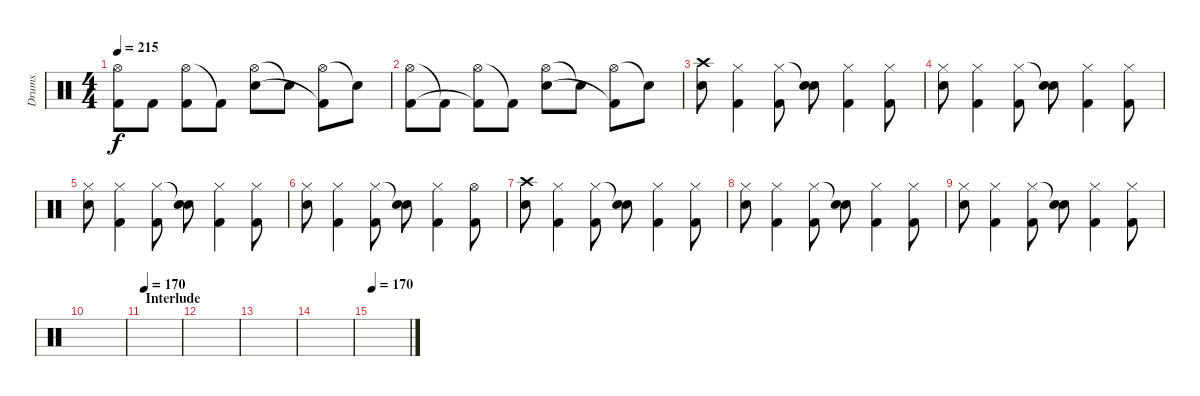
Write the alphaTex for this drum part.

\track ("Drums" "Drums") {instrument percussion}
\staff {score}
\articulation defaults
\ts (4 4)
\tempo 215
\clef neutral
\ks c
("Hi-Hat (open)" "Kick (hit) 2").8{dy f} "Kick (hit) 2".8 ("Hi-Hat (open)" "Kick (hit) 2").8 "Kick (hit) 2"{t}.8 ("Hi-Hat (open)" "Electric Snare (hit)").8 "Snare (hit)"{t}.8 ("Hi-Hat (open)" "Kick (hit) 2"{t}).8 "Snare (hit)"{t}.8 |
("Hi-Hat (open)" "Kick (hit) 2").8 "Kick (hit) 2"{t}.8 ("Hi-Hat (open)" "Kick (hit) 2"{t}).8 "Kick (hit) 2"{t}.8 ("Hi-Hat (open)" "Electric Snare (hit)").8 "Snare (hit)"{t}.8 ("Hi-Hat (open)" "Kick (hit) 2"{t}).8 "Snare (hit)"{t}.8 |
("Crash high (hit)" "Electric Snare (hit)").8 ("Hi-Hat (closed)" "Kick (hit) 2").4 ("Hi-Hat (closed)" "Kick (hit) 2").8 ("Snare (hit)"{t} "Electric Snare (hit)").8 ("Hi-Hat (closed)" "Kick (hit) 2").4 ("Hi-Hat (closed)" "Kick (hit) 2").8 |
("Hi-Hat (closed)" "Electric Snare (hit)").8 ("Hi-Hat (closed)" "Kick (hit) 2").4 ("Hi-Hat (closed)" "Kick (hit) 2").8 ("Snare (hit)"{t} "Electric Snare (hit)").8 ("Hi-Hat (closed)" "Kick (hit) 2").4 ("Hi-Hat (closed)" "Kick (hit) 2").8 |
("Hi-Hat (closed)" "Electric Snare (hit)").8 ("Hi-Hat (closed)" "Kick (hit) 2").4 ("Hi-Hat (closed)" "Kick (hit) 2").8 ("Snare (hit)"{t} "Electric Snare (hit)").8 ("Hi-Hat (closed)" "Kick (hit) 2").4 ("Hi-Hat (closed)" "Kick (hit) 2").8 |
("Hi-Hat (closed)" "Electric Snare (hit)").8 ("Hi-Hat (closed)" "Kick (hit) 2").4 ("Hi-Hat (closed)" "Kick (hit) 2").8 ("Snare (hit)"{t} "Electric Snare (hit)").8 ("Hi-Hat (closed)" "Kick (hit) 2").4 ("Hi-Hat (open)" "Kick (hit) 2").8 |
("Crash high (hit)" "Electric Snare (hit)").8 ("Hi-Hat (closed)" "Kick (hit) 2").4 ("Hi-Hat (closed)" "Kick (hit) 2").8 ("Snare (hit)"{t} "Electric Snare (hit)").8 ("Hi-Hat (closed)" "Kick (hit) 2").4 ("Hi-Hat (closed)" "Kick (hit) 2").8 |
("Hi-Hat (closed)" "Electric Snare (hit)").8 ("Hi-Hat (closed)" "Kick (hit) 2").4 ("Hi-Hat (closed)" "Kick (hit) 2").8 ("Snare (hit)"{t} "Electric Snare (hit)").8 ("Hi-Hat (closed)" "Kick (hit) 2").4 ("Hi-Hat (closed)" "Kick (hit) 2").8 |
("Hi-Hat (closed)" "Electric Snare (hit)").8 ("Hi-Hat (closed)" "Kick (hit) 2").4 ("Hi-Hat (closed)" "Kick (hit) 2").8 ("Snare (hit)"{t} "Electric Snare (hit)").8 ("Hi-Hat (closed)" "Kick (hit) 2").4 ("Hi-Hat (closed)" "Kick (hit) 2").8 |
|
\section ("" "Interlude")
\tempo 170
|
|
|
|
\tempo 170
